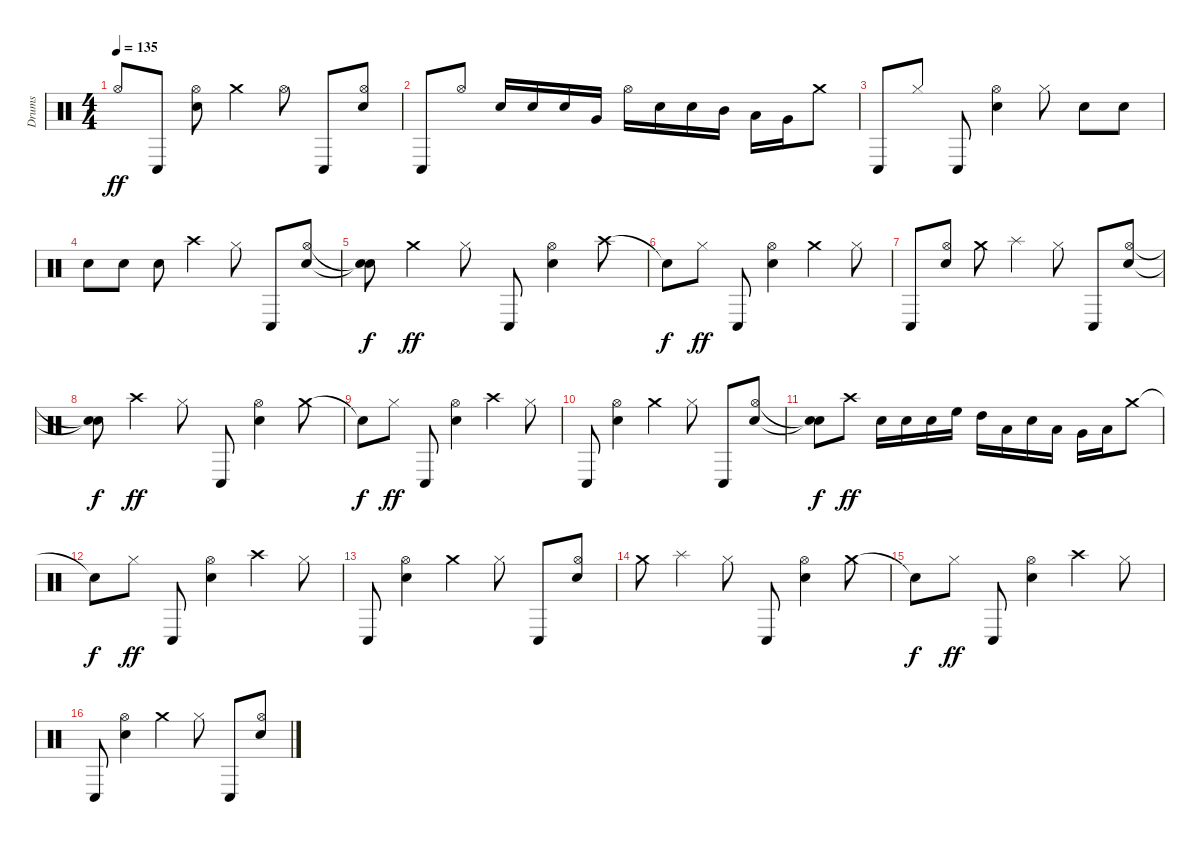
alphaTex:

\track ("Drums" "Drums") {instrument percussion}
\staff {score}
\articulation defaults
\ts (4 4)
\tempo 135
\clef neutral
\ks c "Hi-Hat (open)".8{dy ff} "Conga low (hit)".8
("Electric Snare (hit)" "Hi-Hat (open)").8 "Crash medium (hit)".4 "Hi-Hat (open)".8 "Conga low (hit)".8 ("Electric Snare (hit)" "Hi-Hat (open)").8 |
"Conga low (hit)".8 "Hi-Hat (open)".8 "Electric Snare (hit)".16 "Electric Snare (hit)".16 "Electric Snare (hit)".16 "Very Low Tom (hit)".16 "Hi-Hat (open)".16 "Electric Snare (hit)".16 "Electric Snare (hit)".16 "Mid Tom (hit)".16 "Low Tom (hit)".16 "Very Low Tom (hit)".16 "Crash medium (hit)".8 |
"Conga low (hit)".8 "Hi-Hat (closed)".8 "Conga low (hit)".8 ("Electric Snare (hit)" "Hi-Hat (open)").4 "Hi-Hat (closed)".8 "Electric Snare (hit)".8 "Electric Snare (hit)".8 |
"Electric Snare (hit)".8 "Electric Snare (hit)".8 "Electric Snare (hit)".8 "Crash high (hit)".4 "Hi-Hat (closed)".8 "Conga low (hit)".8 ("Electric Snare (hit)" "Hi-Hat (open)").8 |
("Snare (hit)"{t} "Snare (hit)"{t}).8{dy f} "Crash medium (hit)".4{dy ff} "Hi-Hat (closed)".8 "Conga low (hit)".8 ("Electric Snare (hit)" "Hi-Hat (open)").4 "Crash high (hit)".8 |
"Snare (hit)"{t}.8{dy f} "Hi-Hat (closed)".8{dy ff} "Conga low (hit)".8 ("Electric Snare (hit)" "Hi-Hat (open)").4 "Crash medium (hit)".4 "Hi-Hat (closed)".8 |
"Conga low (hit)".8 ("Electric Snare (hit)" "Hi-Hat (open)").8 "Crash medium (hit)".8 "Splash (hit)".4 "Hi-Hat (closed)".8 "Conga low (hit)".8 ("Electric Snare (hit)" "Hi-Hat (open)").8 |
("Snare (hit)"{t} "Snare (hit)"{t}).8{dy f} "Crash high (hit)".4{dy ff} "Hi-Hat (closed)".8 "Conga low (hit)".8 ("Electric Snare (hit)" "Hi-Hat (open)").4 "Crash medium (hit)".8 |
"Snare (hit)"{t}.8{dy f} "Hi-Hat (closed)".8{dy ff} "Conga low (hit)".8 ("Electric Snare (hit)" "Hi-Hat (open)").4 "Crash high (hit)".4 "Hi-Hat (closed)".8 |
"Conga low (hit)".8 ("Electric Snare (hit)" "Hi-Hat (open)").4 "Crash medium (hit)".4 "Hi-Hat (closed)".8 "Conga low (hit)".8 ("Electric Snare (hit)" "Hi-Hat (open)").8 |
("Snare (hit)"{t} "Snare (hit)"{t}).8{dy f} "Crash high (hit)".8{dy ff} "Electric Snare (hit)".16 "Electric Snare (hit)".16 "Electric Snare (hit)".16 "High Floor Tom (hit)".16 "High Tom (hit)".16 "Low Tom (hit)".16 "Electric Snare (hit)".16 "Low Tom (hit)".16 "Very Low Tom (hit)".16 "Low Floor Tom (hit)".16 "Crash medium (hit)".8 |
"Snare (hit)"{t}.8{dy f} "Hi-Hat (closed)".8{dy ff} "Conga low (hit)".8 ("Electric Snare (hit)" "Hi-Hat (open)").4 "Crash high (hit)".4 "Hi-Hat (closed)".8 |
"Conga low (hit)".8 ("Electric Snare (hit)" "Hi-Hat (open)").4 "Crash medium (hit)".4 "Hi-Hat (closed)".8 "Conga low (hit)".8 ("Electric Snare (hit)" "Hi-Hat (open)").8 |
"Crash medium (hit)".8 "Splash (hit)".4 "Hi-Hat (closed)".8 "Conga low (hit)".8 ("Electric Snare (hit)" "Hi-Hat (open)").4 "Crash medium (hit)".8 |
"Snare (hit)"{t}.8{dy f} "Hi-Hat (closed)".8{dy ff} "Conga low (hit)".8 ("Electric Snare (hit)" "Hi-Hat (open)").4 "Crash high (hit)".4 "Hi-Hat (closed)".8 |
"Conga low (hit)".8 ("Electric Snare (hit)" "Hi-Hat (open)").4 "Crash medium (hit)".4 "Hi-Hat (closed)".8 "Conga low (hit)".8 ("Electric Snare (hit)" "Hi-Hat (open)").8
